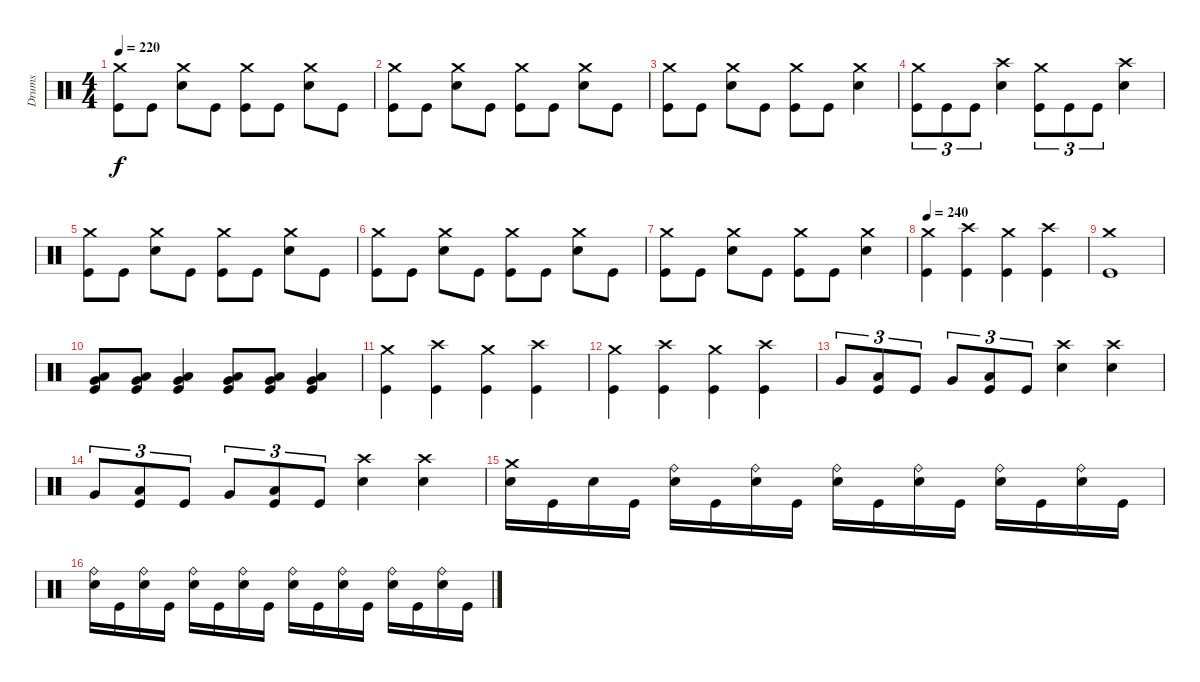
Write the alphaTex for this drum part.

\track ("Drums" "Drums") {instrument percussion}
\staff {score}
\articulation defaults
\ts (4 4)
\tempo 220
\clef neutral
\ks c
("Crash medium (hit)" "Kick (hit)").8{dy f} "Kick (hit)".8 ("Crash medium (hit)" "Electric Snare (hit)").8 "Kick (hit)".8 ("Crash medium (hit)" "Kick (hit)").8 "Kick (hit)".8 ("Crash medium (hit)" "Electric Snare (hit)").8 "Kick (hit)".8 |
("Crash medium (hit)" "Kick (hit)").8 "Kick (hit)".8 ("Crash medium (hit)" "Electric Snare (hit)").8 "Kick (hit)".8 ("Crash medium (hit)" "Kick (hit)").8 "Kick (hit)".8 ("Crash medium (hit)" "Electric Snare (hit)").8 "Kick (hit)".8 |
("Crash medium (hit)" "Kick (hit)").8 "Kick (hit)".8 ("Crash medium (hit)" "Electric Snare (hit)").8 "Kick (hit)".8 ("Crash medium (hit)" "Kick (hit)").8 "Kick (hit)".8 ("Crash medium (hit)" "Electric Snare (hit)").4 |
("Crash medium (hit)" "Kick (hit)").8{tu (3 2)} "Kick (hit)".8{tu (3 2)} "Kick (hit)".8{tu (3 2)} ("Crash high (hit)" "Electric Snare (hit)").4 ("Crash medium (hit)" "Kick (hit)").8{tu (3 2)} "Kick (hit)".8{tu (3 2)} "Kick (hit)".8{tu (3 2)} ("Crash high (hit)" "Electric Snare (hit)").4 |
("Crash medium (hit)" "Kick (hit)").8 "Kick (hit)".8 ("Crash medium (hit)" "Electric Snare (hit)").8 "Kick (hit)".8 ("Crash medium (hit)" "Kick (hit)").8 "Kick (hit)".8 ("Crash medium (hit)" "Electric Snare (hit)").8 "Kick (hit)".8 |
("Crash medium (hit)" "Kick (hit)").8 "Kick (hit)".8 ("Crash medium (hit)" "Electric Snare (hit)").8 "Kick (hit)".8 ("Crash medium (hit)" "Kick (hit)").8 "Kick (hit)".8 ("Crash medium (hit)" "Electric Snare (hit)").8 "Kick (hit)".8 |
("Crash medium (hit)" "Kick (hit)").8 "Kick (hit)".8 ("Crash medium (hit)" "Electric Snare (hit)").8 "Kick (hit)".8 ("Crash medium (hit)" "Kick (hit)").8 "Kick (hit)".8 ("Crash medium (hit)" "Electric Snare (hit)").4 |
\tempo 240
("Crash medium (hit)" "Kick (hit)").4 ("Crash high (hit)" "Kick (hit)").4 ("Crash medium (hit)" "Kick (hit)").4 ("Crash high (hit)" "Kick (hit)").4 |
("Crash medium (hit)" "Kick (hit)").1 |
("Low Floor Tom (hit)" "Very Low Tom (hit)" "Kick (hit)").8 ("Low Floor Tom (hit)" "Very Low Tom (hit)" "Kick (hit)").8 ("Low Floor Tom (hit)" "Very Low Tom (hit)" "Kick (hit)").4 ("Low Floor Tom (hit)" "Very Low Tom (hit)" "Kick (hit)").8 ("Low Floor Tom (hit)" "Very Low Tom (hit)" "Kick (hit)").8 ("Low Floor Tom (hit)" "Very Low Tom (hit)" "Kick (hit)").4 |
("Crash medium (hit)" "Kick (hit)").4 ("Crash high (hit)" "Kick (hit)").4 ("Crash medium (hit)" "Kick (hit)").4 ("Crash high (hit)" "Kick (hit)").4 |
("Crash medium (hit)" "Kick (hit)").4 ("Crash high (hit)" "Kick (hit)").4 ("Crash medium (hit)" "Kick (hit)").4 ("Crash high (hit)" "Kick (hit)").4 |
"Very Low Tom (hit)".8{tu (3 2)} ("Low Floor Tom (hit)" "Kick (hit)").8{tu (3 2)} "Kick (hit)".8{tu (3 2)} "Very Low Tom (hit)".8{tu (3 2)} ("Low Floor Tom (hit)" "Kick (hit)").8{tu (3 2)} "Kick (hit)".8{tu (3 2)} ("Crash high (hit)" "Electric Snare (hit)").4 ("Crash high (hit)" "Electric Snare (hit)").4 |
"Very Low Tom (hit)".8{tu (3 2)} ("Low Floor Tom (hit)" "Kick (hit)").8{tu (3 2)} "Kick (hit)".8{tu (3 2)} "Very Low Tom (hit)".8{tu (3 2)} ("Low Floor Tom (hit)" "Kick (hit)").8{tu (3 2)} "Kick (hit)".8{tu (3 2)} ("Crash high (hit)" "Electric Snare (hit)").4 ("Crash high (hit)" "Electric Snare (hit)").4 |
("Crash medium (hit)" "Electric Snare (hit)").16 "Kick (hit)".16 "Electric Snare (hit)".16 "Kick (hit)".16 ("Ride (bell)" "Electric Snare (hit)").16 "Kick (hit)".16 ("Ride (bell)" "Electric Snare (hit)").16 "Kick (hit)".16 ("Ride (bell)" "Electric Snare (hit)").16 "Kick (hit)".16 ("Ride (bell)" "Electric Snare (hit)").16 "Kick (hit)".16 ("Ride (bell)" "Electric Snare (hit)").16 "Kick (hit)".16 ("Ride (bell)" "Electric Snare (hit)").16 "Kick (hit)".16 |
("Ride (bell)" "Electric Snare (hit)").16 "Kick (hit)".16 ("Ride (bell)" "Electric Snare (hit)").16 "Kick (hit)".16 ("Ride (bell)" "Electric Snare (hit)").16 "Kick (hit)".16 ("Ride (bell)" "Electric Snare (hit)").16 "Kick (hit)".16 ("Ride (bell)" "Electric Snare (hit)").16 "Kick (hit)".16 ("Ride (bell)" "Electric Snare (hit)").16 "Kick (hit)".16 ("Ride (bell)" "Electric Snare (hit)").16 "Kick (hit)".16 ("Ride (bell)" "Electric Snare (hit)").16 "Kick (hit)".16
